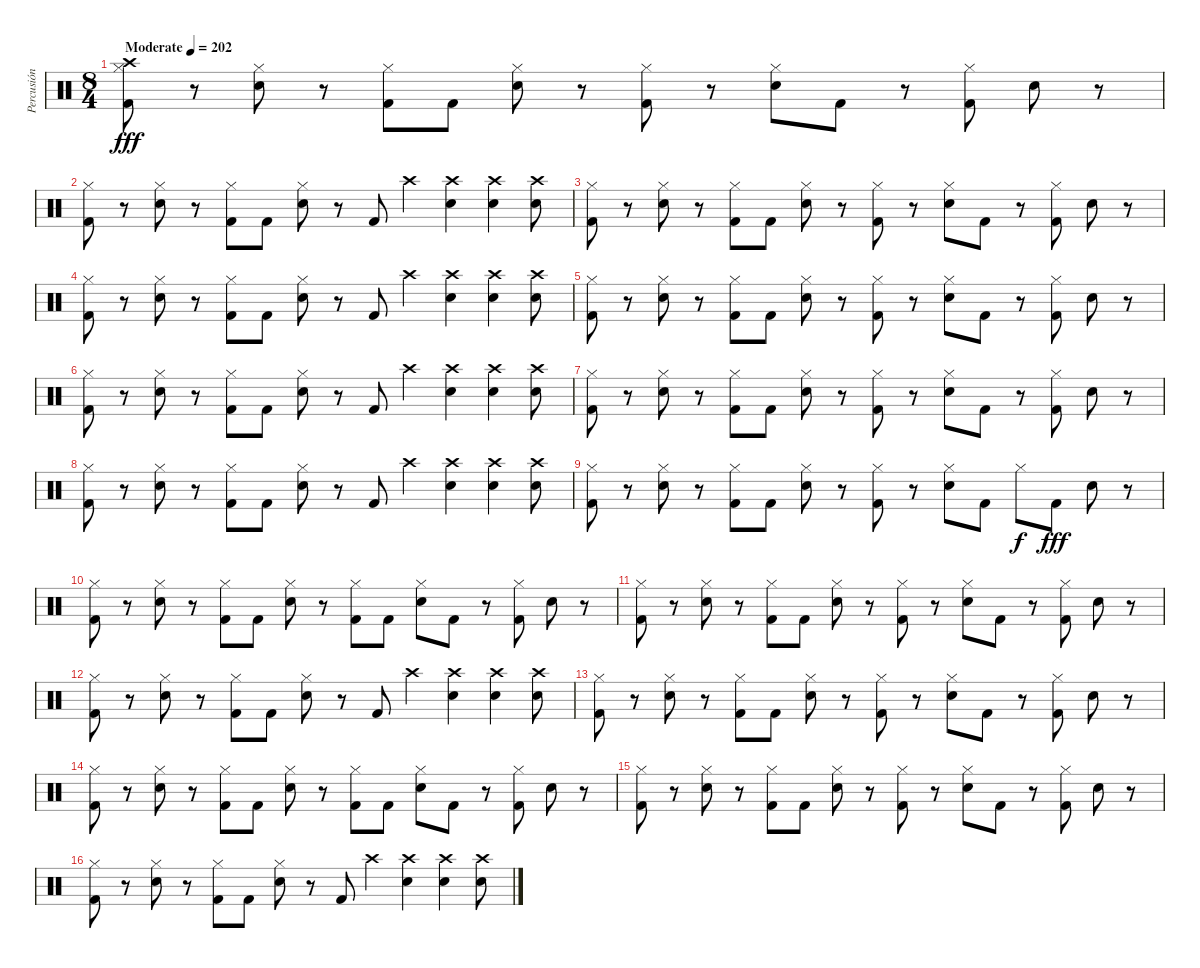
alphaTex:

\track ("Percusión (Santi Doré)" "Percusión ") {instrument percussion}
\staff {score}
\articulation defaults
\ts (8 4)
\tempo (202 "Moderate")
\clef neutral
\ks c
("Crash high (hit)" "Hi-Hat (closed)" "Kick (hit) 2").8{dy fff} r.8 ("Hi-Hat (closed)" "Electric Snare (hit)").8 r.8 ("Hi-Hat (closed)" "Kick (hit) 2").8 "Kick (hit) 2".8 ("Hi-Hat (closed)" "Electric Snare (hit)").8 r.8 ("Hi-Hat (closed)" "Kick (hit) 2").8 r.8 ("Hi-Hat (closed)" "Electric Snare (hit)").8 "Kick (hit) 2".8 r.8 ("Hi-Hat (closed)" "Kick (hit) 2").8 "Electric Snare (hit)".8 r.8 |
("Hi-Hat (closed)" "Kick (hit) 2").8 r.8 ("Hi-Hat (closed)" "Electric Snare (hit)").8 r.8 ("Hi-Hat (closed)" "Kick (hit) 2").8 "Kick (hit) 2".8 ("Hi-Hat (closed)" "Electric Snare (hit)").8 r.8 "Kick (hit) 2".8 "Crash high (hit)".4 ("Crash high (hit)" "Electric Snare (hit)").4 ("Crash high (hit)" "Electric Snare (hit)").4 ("Crash high (hit)" "Electric Snare (hit)").8 |
("Hi-Hat (closed)" "Kick (hit) 2").8 r.8 ("Hi-Hat (closed)" "Electric Snare (hit)").8 r.8 ("Hi-Hat (closed)" "Kick (hit) 2").8 "Kick (hit) 2".8 ("Hi-Hat (closed)" "Electric Snare (hit)").8 r.8 ("Hi-Hat (closed)" "Kick (hit) 2").8 r.8 ("Hi-Hat (closed)" "Electric Snare (hit)").8 "Kick (hit) 2".8 r.8 ("Hi-Hat (closed)" "Kick (hit) 2").8 "Electric Snare (hit)".8 r.8 |
("Hi-Hat (closed)" "Kick (hit) 2").8 r.8 ("Hi-Hat (closed)" "Electric Snare (hit)").8 r.8 ("Hi-Hat (closed)" "Kick (hit) 2").8 "Kick (hit) 2".8 ("Hi-Hat (closed)" "Electric Snare (hit)").8 r.8 "Kick (hit) 2".8 "Crash high (hit)".4 ("Crash high (hit)" "Electric Snare (hit)").4 ("Crash high (hit)" "Electric Snare (hit)").4 ("Crash high (hit)" "Electric Snare (hit)").8 |
("Hi-Hat (closed)" "Kick (hit) 2").8 r.8 ("Hi-Hat (closed)" "Electric Snare (hit)").8 r.8 ("Hi-Hat (closed)" "Kick (hit) 2").8 "Kick (hit) 2".8 ("Hi-Hat (closed)" "Electric Snare (hit)").8 r.8 ("Hi-Hat (closed)" "Kick (hit) 2").8 r.8 ("Hi-Hat (closed)" "Electric Snare (hit)").8 "Kick (hit) 2".8 r.8 ("Hi-Hat (closed)" "Kick (hit) 2").8 "Electric Snare (hit)".8 r.8 |
("Hi-Hat (closed)" "Kick (hit) 2").8 r.8 ("Hi-Hat (closed)" "Electric Snare (hit)").8 r.8 ("Hi-Hat (closed)" "Kick (hit) 2").8 "Kick (hit) 2".8 ("Hi-Hat (closed)" "Electric Snare (hit)").8 r.8 "Kick (hit) 2".8 "Crash high (hit)".4 ("Crash high (hit)" "Electric Snare (hit)").4 ("Crash high (hit)" "Electric Snare (hit)").4 ("Crash high (hit)" "Electric Snare (hit)").8 |
("Hi-Hat (closed)" "Kick (hit) 2").8 r.8 ("Hi-Hat (closed)" "Electric Snare (hit)").8 r.8 ("Hi-Hat (closed)" "Kick (hit) 2").8 "Kick (hit) 2".8 ("Hi-Hat (closed)" "Electric Snare (hit)").8 r.8 ("Hi-Hat (closed)" "Kick (hit) 2").8 r.8 ("Hi-Hat (closed)" "Electric Snare (hit)").8 "Kick (hit) 2".8 r.8 ("Hi-Hat (closed)" "Kick (hit) 2").8 "Electric Snare (hit)".8 r.8 |
("Hi-Hat (closed)" "Kick (hit) 2").8 r.8 ("Hi-Hat (closed)" "Electric Snare (hit)").8 r.8 ("Hi-Hat (closed)" "Kick (hit) 2").8 "Kick (hit) 2".8 ("Hi-Hat (closed)" "Electric Snare (hit)").8 r.8 "Kick (hit) 2".8 "Crash high (hit)".4 ("Crash high (hit)" "Electric Snare (hit)").4 ("Crash high (hit)" "Electric Snare (hit)").4 ("Crash high (hit)" "Electric Snare (hit)").8 |
("Hi-Hat (closed)" "Kick (hit) 2").8 r.8 ("Hi-Hat (closed)" "Electric Snare (hit)").8 r.8 ("Hi-Hat (closed)" "Kick (hit) 2").8 "Kick (hit) 2".8 ("Hi-Hat (closed)" "Electric Snare (hit)").8 r.8 ("Hi-Hat (closed)" "Kick (hit) 2").8 r.8 ("Hi-Hat (closed)" "Electric Snare (hit)").8 "Kick (hit) 2".8 "Hi-Hat (closed)".8{dy f} "Kick (hit) 2".8{dy fff} "Electric Snare (hit)".8 r.8 |
("Hi-Hat (closed)" "Kick (hit) 2").8 r.8 ("Hi-Hat (closed)" "Electric Snare (hit)").8 r.8 ("Hi-Hat (closed)" "Kick (hit) 2").8 "Kick (hit) 2".8 ("Hi-Hat (closed)" "Electric Snare (hit)").8 r.8 ("Hi-Hat (closed)" "Kick (hit) 2").8 "Kick (hit) 2".8 ("Hi-Hat (closed)" "Electric Snare (hit)").8 "Kick (hit) 2".8 r.8 ("Hi-Hat (closed)" "Kick (hit) 2").8 "Electric Snare (hit)".8 r.8 |
("Hi-Hat (closed)" "Kick (hit) 2").8 r.8 ("Hi-Hat (closed)" "Electric Snare (hit)").8 r.8 ("Hi-Hat (closed)" "Kick (hit) 2").8 "Kick (hit) 2".8 ("Hi-Hat (closed)" "Electric Snare (hit)").8 r.8 ("Hi-Hat (closed)" "Kick (hit) 2").8 r.8 ("Hi-Hat (closed)" "Electric Snare (hit)").8 "Kick (hit) 2".8 r.8 ("Hi-Hat (closed)" "Kick (hit) 2").8 "Electric Snare (hit)".8 r.8 |
("Hi-Hat (closed)" "Kick (hit) 2").8 r.8 ("Hi-Hat (closed)" "Electric Snare (hit)").8 r.8 ("Hi-Hat (closed)" "Kick (hit) 2").8 "Kick (hit) 2".8 ("Hi-Hat (closed)" "Electric Snare (hit)").8 r.8 "Kick (hit) 2".8 "Crash high (hit)".4 ("Crash high (hit)" "Electric Snare (hit)").4 ("Crash high (hit)" "Electric Snare (hit)").4 ("Crash high (hit)" "Electric Snare (hit)").8 |
("Hi-Hat (closed)" "Kick (hit) 2").8 r.8 ("Hi-Hat (closed)" "Electric Snare (hit)").8 r.8 ("Hi-Hat (closed)" "Kick (hit) 2").8 "Kick (hit) 2".8 ("Hi-Hat (closed)" "Electric Snare (hit)").8 r.8 ("Hi-Hat (closed)" "Kick (hit) 2").8 r.8 ("Hi-Hat (closed)" "Electric Snare (hit)").8 "Kick (hit) 2".8 r.8 ("Hi-Hat (closed)" "Kick (hit) 2").8 "Electric Snare (hit)".8 r.8 |
("Hi-Hat (closed)" "Kick (hit) 2").8 r.8 ("Hi-Hat (closed)" "Electric Snare (hit)").8 r.8 ("Hi-Hat (closed)" "Kick (hit) 2").8 "Kick (hit) 2".8 ("Hi-Hat (closed)" "Electric Snare (hit)").8 r.8 ("Hi-Hat (closed)" "Kick (hit) 2").8 "Kick (hit) 2".8 ("Hi-Hat (closed)" "Electric Snare (hit)").8 "Kick (hit) 2".8 r.8 ("Hi-Hat (closed)" "Kick (hit) 2").8 "Electric Snare (hit)".8 r.8 |
("Hi-Hat (closed)" "Kick (hit) 2").8 r.8 ("Hi-Hat (closed)" "Electric Snare (hit)").8 r.8 ("Hi-Hat (closed)" "Kick (hit) 2").8 "Kick (hit) 2".8 ("Hi-Hat (closed)" "Electric Snare (hit)").8 r.8 ("Hi-Hat (closed)" "Kick (hit) 2").8 r.8 ("Hi-Hat (closed)" "Electric Snare (hit)").8 "Kick (hit) 2".8 r.8 ("Hi-Hat (closed)" "Kick (hit) 2").8 "Electric Snare (hit)".8 r.8 |
("Hi-Hat (closed)" "Kick (hit) 2").8 r.8 ("Hi-Hat (closed)" "Electric Snare (hit)").8 r.8 ("Hi-Hat (closed)" "Kick (hit) 2").8 "Kick (hit) 2".8 ("Hi-Hat (closed)" "Electric Snare (hit)").8 r.8 "Kick (hit) 2".8 "Crash high (hit)".4 ("Crash high (hit)" "Electric Snare (hit)").4 ("Crash high (hit)" "Electric Snare (hit)").4 ("Crash high (hit)" "Electric Snare (hit)").8
